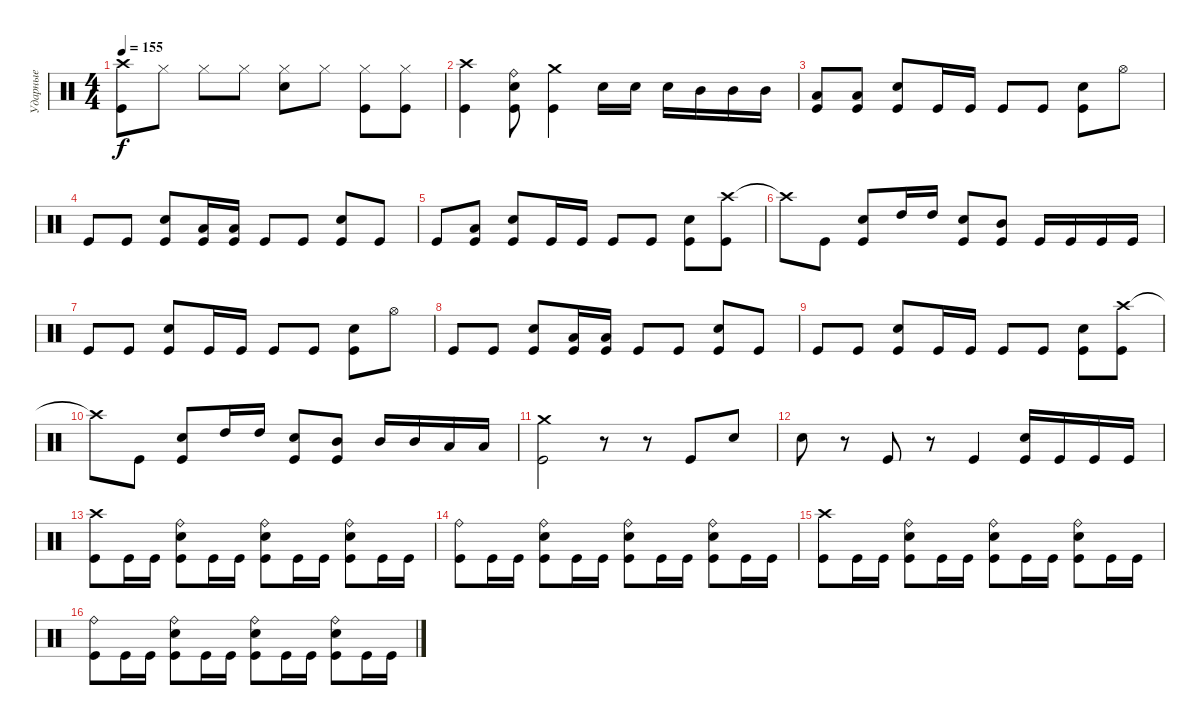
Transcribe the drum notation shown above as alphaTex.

\track ("Ударные" "Ударные") {instrument percussion}
\staff {score}
\articulation defaults
\ts (4 4)
\tempo 155
\clef neutral
\ks c
("Crash high (hit)" "Kick (hit)").8{dy f} "Hi-Hat (closed)".8 "Hi-Hat (closed)".8 "Hi-Hat (closed)".8 ("Hi-Hat (closed)" "Electric Snare (hit)").8 "Hi-Hat (closed)".8 ("Hi-Hat (closed)" "Kick (hit)").8 ("Hi-Hat (closed)" "Kick (hit)").8 |
("Crash high (hit)" "Kick (hit)").4 ("Ride (bell)" "Electric Snare (hit)" "Kick (hit)").8 ("Crash medium (hit)" "Kick (hit)").4 "Electric Snare (hit)".16 "Electric Snare (hit)".16 "Electric Snare (hit)".16 "Mid Tom (hit)".16 "Mid Tom (hit)".16 "Mid Tom (hit)".16 |
("Low Tom (hit)" "Kick (hit)").8 ("Low Tom (hit)" "Kick (hit)").8 ("Electric Snare (hit)" "Kick (hit)").8 "Kick (hit)".16 "Kick (hit)".16 "Kick (hit)".8 "Kick (hit)".8 ("Electric Snare (hit)" "Kick (hit)").8 "Hi-Hat (open)".8 |
"Kick (hit)".8 "Kick (hit)".8 ("Electric Snare (hit)" "Kick (hit)").8 ("Low Tom (hit)" "Kick (hit)").16 ("Low Tom (hit)" "Kick (hit)").16 "Kick (hit)".8 "Kick (hit)".8 ("Electric Snare (hit)" "Kick (hit)").8 "Kick (hit)".8 |
"Kick (hit)".8 ("Low Tom (hit)" "Kick (hit)").8 ("Electric Snare (hit)" "Kick (hit)").8 "Kick (hit)".16 "Kick (hit)".16 "Kick (hit)".8 "Kick (hit)".8 ("Electric Snare (hit)" "Kick (hit)").8 ("Crash high (hit)" "Kick (hit)").8 |
"Crash high (hit)"{t}.8 "Kick (hit)".8 ("Electric Snare (hit)" "Kick (hit)").8 "High Tom (hit)".16 "High Tom (hit)".16 ("Electric Snare (hit)" "Kick (hit)").8 ("Mid Tom (hit)" "Kick (hit)").8 "Kick (hit)".16 "Kick (hit)".16 "Kick (hit)".16 "Kick (hit)".16 |
"Kick (hit)".8 "Kick (hit)".8 ("Electric Snare (hit)" "Kick (hit)").8 "Kick (hit)".16 "Kick (hit)".16 "Kick (hit)".8 "Kick (hit)".8 ("Electric Snare (hit)" "Kick (hit)").8 "Hi-Hat (open)".8 |
"Kick (hit)".8 "Kick (hit)".8 ("Electric Snare (hit)" "Kick (hit)").8 ("Low Tom (hit)" "Kick (hit)").16 ("Low Tom (hit)" "Kick (hit)").16 "Kick (hit)".8 "Kick (hit)".8 ("Electric Snare (hit)" "Kick (hit)").8 "Kick (hit)".8 |
"Kick (hit)".8 "Kick (hit)".8 ("Electric Snare (hit)" "Kick (hit)").8 "Kick (hit)".16 "Kick (hit)".16 "Kick (hit)".8 "Kick (hit)".8 ("Electric Snare (hit)" "Kick (hit)").8 ("Crash high (hit)" "Kick (hit)").8 |
"Crash high (hit)"{t}.8 "Kick (hit)".8 ("Electric Snare (hit)" "Kick (hit)").8 "High Tom (hit)".16 "High Tom (hit)".16 ("Electric Snare (hit)" "Kick (hit)").8 ("Mid Tom (hit)" "Kick (hit)").8 "Mid Tom (hit)".16 "Mid Tom (hit)".16 "Low Tom (hit)".16 "Low Tom (hit)".16 |
("Crash medium (hit)" "Kick (hit)").2 r.8 r.8 "Kick (hit)".8 "Electric Snare (hit)".8 |
"Electric Snare (hit)".8 r.8 "Kick (hit)".8 r.8 "Kick (hit)".4 ("Electric Snare (hit)" "Kick (hit)").16 "Kick (hit)".16 "Kick (hit)".16 "Kick (hit)".16 |
("Crash high (hit)" "Kick (hit)").8 "Kick (hit)".16 "Kick (hit)".16 ("Ride (bell)" "Electric Snare (hit)" "Kick (hit)").8 "Kick (hit)".16 "Kick (hit)".16 ("Ride (bell)" "Electric Snare (hit)" "Kick (hit)").8 "Kick (hit)".16 "Kick (hit)".16 ("Ride (bell)" "Electric Snare (hit)" "Kick (hit)").8 "Kick (hit)".16 "Kick (hit)".16 |
("Ride (bell)" "Kick (hit)").8 "Kick (hit)".16 "Kick (hit)".16 ("Ride (bell)" "Electric Snare (hit)" "Kick (hit)").8 "Kick (hit)".16 "Kick (hit)".16 ("Ride (bell)" "Electric Snare (hit)" "Kick (hit)").8 "Kick (hit)".16 "Kick (hit)".16 ("Ride (bell)" "Electric Snare (hit)" "Kick (hit)").8 "Kick (hit)".16 "Kick (hit)".16 |
("Crash high (hit)" "Kick (hit)").8 "Kick (hit)".16 "Kick (hit)".16 ("Ride (bell)" "Electric Snare (hit)" "Kick (hit)").8 "Kick (hit)".16 "Kick (hit)".16 ("Ride (bell)" "Electric Snare (hit)" "Kick (hit)").8 "Kick (hit)".16 "Kick (hit)".16 ("Ride (bell)" "Electric Snare (hit)" "Kick (hit)").8 "Kick (hit)".16 "Kick (hit)".16 |
("Ride (bell)" "Kick (hit)").8 "Kick (hit)".16 "Kick (hit)".16 ("Ride (bell)" "Electric Snare (hit)" "Kick (hit)").8 "Kick (hit)".16 "Kick (hit)".16 ("Ride (bell)" "Electric Snare (hit)" "Kick (hit)").8 "Kick (hit)".16 "Kick (hit)".16 ("Ride (bell)" "Electric Snare (hit)" "Kick (hit)").8 "Kick (hit)".16 "Kick (hit)".16
